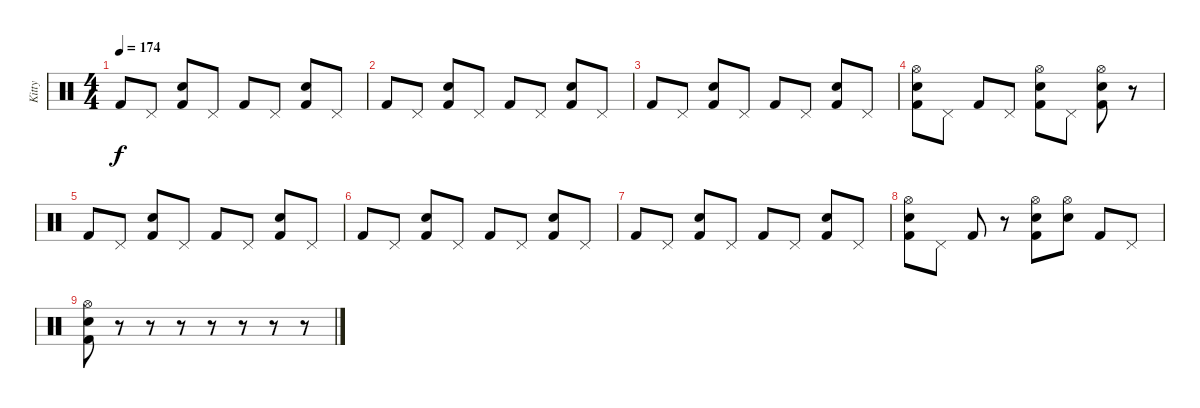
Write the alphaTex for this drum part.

\track ("Kitty" "Kitty") {instrument percussion}
\staff {score}
\articulation defaults
\ts (4 4)
\tempo 174
\clef neutral
\ks c "Kick (hit) 2".8{dy f} "Pedal Hi-Hat (hit)".8
("Snare (hit) 2" "Kick (hit) 2").8 "Pedal Hi-Hat (hit)".8 "Kick (hit) 2".8 "Pedal Hi-Hat (hit)".8 ("Snare (hit) 2" "Kick (hit) 2").8 "Pedal Hi-Hat (hit)".8 |
"Kick (hit) 2".8 "Pedal Hi-Hat (hit)".8 ("Snare (hit) 2" "Kick (hit) 2").8 "Pedal Hi-Hat (hit)".8 "Kick (hit) 2".8 "Pedal Hi-Hat (hit)".8 ("Snare (hit) 2" "Kick (hit) 2").8 "Pedal Hi-Hat (hit)".8 |
"Kick (hit) 2".8 "Pedal Hi-Hat (hit)".8 ("Snare (hit) 2" "Kick (hit) 2").8 "Pedal Hi-Hat (hit)".8 "Kick (hit) 2".8 "Pedal Hi-Hat (hit)".8 ("Snare (hit) 2" "Kick (hit) 2").8 "Pedal Hi-Hat (hit)".8 |
("Hi-Hat (open)" "Snare (hit) 2" "Kick (hit) 2").8 "Pedal Hi-Hat (hit)".8 "Kick (hit) 2".8 "Pedal Hi-Hat (hit)".8 ("Hi-Hat (open)" "Snare (hit) 2" "Kick (hit) 2").8 "Pedal Hi-Hat (hit)".8 ("Hi-Hat (open)" "Snare (hit) 2" "Kick (hit) 2").8 r.8 |
"Kick (hit) 2".8 "Pedal Hi-Hat (hit)".8 ("Snare (hit) 2" "Kick (hit) 2").8 "Pedal Hi-Hat (hit)".8 "Kick (hit) 2".8 "Pedal Hi-Hat (hit)".8 ("Snare (hit) 2" "Kick (hit) 2").8 "Pedal Hi-Hat (hit)".8 |
"Kick (hit) 2".8 "Pedal Hi-Hat (hit)".8 ("Snare (hit) 2" "Kick (hit) 2").8 "Pedal Hi-Hat (hit)".8 "Kick (hit) 2".8 "Pedal Hi-Hat (hit)".8 ("Snare (hit) 2" "Kick (hit) 2").8 "Pedal Hi-Hat (hit)".8 |
"Kick (hit) 2".8 "Pedal Hi-Hat (hit)".8 ("Snare (hit) 2" "Kick (hit) 2").8 "Pedal Hi-Hat (hit)".8 "Kick (hit) 2".8 "Pedal Hi-Hat (hit)".8 ("Snare (hit) 2" "Kick (hit) 2").8 "Pedal Hi-Hat (hit)".8 |
("Hi-Hat (open)" "Snare (hit) 2" "Kick (hit) 2").8 "Pedal Hi-Hat (hit)".8 "Kick (hit) 2".8 r.8 ("Hi-Hat (open)" "Snare (hit) 2" "Kick (hit) 2").8 ("Hi-Hat (open)" "Snare (hit) 2").8 "Kick (hit) 2".8 "Pedal Hi-Hat (hit)".8 |
("Hi-Hat (open)" "Snare (hit) 2" "Kick (hit) 2").8 r.8 r.8 r.8 r.8 r.8 r.8 r.8
